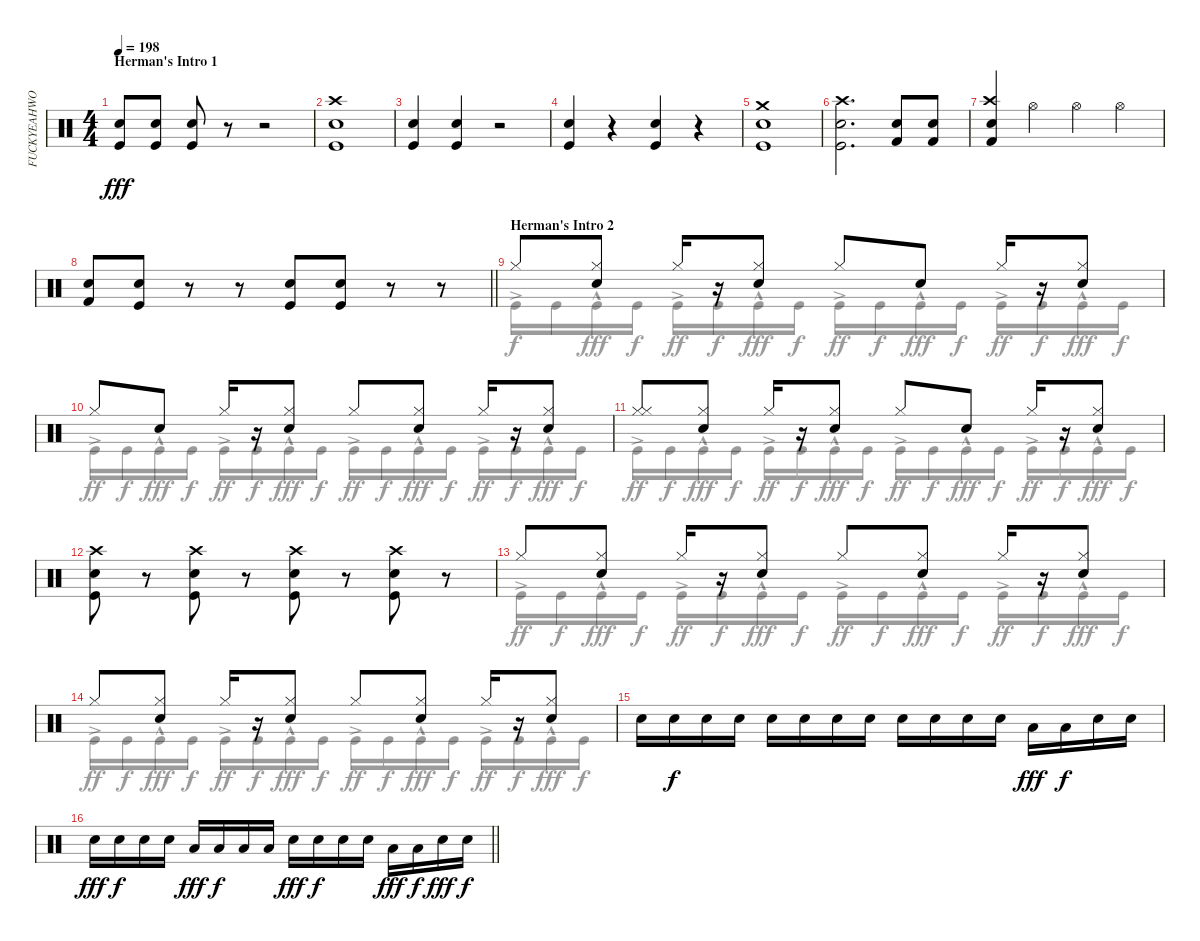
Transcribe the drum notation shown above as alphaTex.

\track ("FUCKYEAHWOOTDAVEMACKINTOSH!(Percussion)" "FUCKYEAHWO") {instrument percussion}
\staff {score}
\articulation defaults
\voice
\ts (4 4)
\section ("" "Herman's Intro 1")
\tempo 198
\clef neutral
\ks c
("Kick (hit)" "Snare (hit) 2").8{dy fff} ("Snare (hit) 2" "Kick (hit)").8 ("Kick (hit)" "Snare (hit) 2").8 r.8 r.2 |
("Crash high (hit)" "Snare (hit) 2" "Kick (hit)").1 |
("Snare (hit) 2" "Kick (hit)").4 ("Kick (hit)" "Snare (hit) 2").4 r.2 |
("Kick (hit)" "Snare (hit) 2").4 r.4 ("Snare (hit) 2" "Kick (hit)").4 r.4 |
("Kick (hit)" "Snare (hit) 2" "Crash medium (hit)").1 |
("Crash high (hit)" "Kick (hit)" "Snare (hit) 2").2{d} ("Kick (hit) 2" "Snare (hit) 2").8 ("Snare (hit) 2" "Kick (hit) 2").8 |
("Crash high (hit)" "Snare (hit) 2" "Kick (hit) 2").4 "Hi-Hat (open)".4 "Hi-Hat (open)".4 "Hi-Hat (open)".4 |
\barLineRight lightlight
("Kick (hit) 2" "Snare (hit) 2").8 ("Kick (hit)" "Snare (hit) 2").8 r.8 r.8 ("Kick (hit)" "Snare (hit) 2").8 ("Kick (hit)" "Snare (hit) 2").8 r.8 r.8 |
\section ("" "Herman's Intro 2")
"Hi-Hat (closed)".8 ("Snare (hit) 2" "Hi-Hat (closed)").8 "Hi-Hat (closed)".16 r.16 ("Hi-Hat (closed)" "Snare (hit) 2").8 "Hi-Hat (closed)".8 "Snare (hit) 2".8 "Hi-Hat (closed)".16 r.16 ("Snare (hit) 2" "Hi-Hat (closed)").8 |
"Hi-Hat (closed)".8 "Snare (hit) 2".8 "Hi-Hat (closed)".16 r.16 ("Hi-Hat (closed)" "Snare (hit) 2").8 "Hi-Hat (closed)".8 ("Snare (hit) 2" "Hi-Hat (closed)").8 "Hi-Hat (closed)".16 r.16 ("Snare (hit) 2" "Hi-Hat (closed)").8 |
("Hi-Hat (closed)" "Hi-Hat (closed)").8 ("Snare (hit) 2" "Hi-Hat (closed)").8 "Hi-Hat (closed)".16 r.16 ("Hi-Hat (closed)" "Snare (hit) 2").8 "Hi-Hat (closed)".8 "Snare (hit) 2".8 "Hi-Hat (closed)".16 r.16 ("Snare (hit) 2" "Hi-Hat (closed)").8 |
("Snare (hit) 2" "Kick (hit)" "Crash high (hit)").8 r.8 ("Crash high (hit)" "Kick (hit)" "Snare (hit) 2").8 r.8 ("Snare (hit) 2" "Kick (hit)" "Crash high (hit)").8 r.8 ("Kick (hit)" "Crash high (hit)" "Snare (hit) 2").8 r.8 |
"Hi-Hat (closed)".8 ("Snare (hit) 2" "Hi-Hat (closed)").8 "Hi-Hat (closed)".16 r.16 ("Hi-Hat (closed)" "Snare (hit) 2").8 "Hi-Hat (closed)".8 ("Snare (hit) 2" "Hi-Hat (closed)").8 "Hi-Hat (closed)".16 r.16 ("Snare (hit) 2" "Hi-Hat (closed)").8 |
"Hi-Hat (closed)".8 ("Snare (hit) 2" "Hi-Hat (closed)").8 "Hi-Hat (closed)".16 r.16 ("Hi-Hat (closed)" "Snare (hit) 2").8 "Hi-Hat (closed)".8 ("Snare (hit) 2" "Hi-Hat (closed)").8 "Hi-Hat (closed)".16 r.16 ("Snare (hit) 2" "Hi-Hat (closed)").8 |
"Snare (hit) 2".16 "Snare (hit) 2".16{dy f} "Snare (hit) 2".16 "Snare (hit) 2".16 "Snare (hit) 2".16 "Snare (hit) 2".16 "Snare (hit) 2".16 "Snare (hit) 2".16 "Snare (hit) 2".16 "Snare (hit) 2".16 "Snare (hit) 2".16 "Snare (hit) 2".16 "Low Tom (hit)".16{dy fff} "Low Tom (hit)".16{dy f} "Snare (hit) 2".16 "Snare (hit) 2".16 |
\barLineRight lightlight "Snare (hit) 2".16{dy fff} "Snare (hit) 2".16{dy f} "Snare (hit) 2".16 "Snare (hit) 2".16 "Low Tom (hit)".16{dy fff} "Low Tom (hit)".16{dy f} "Low Tom (hit)".16 "Low Tom (hit)".16 "Snare (hit) 2".16{dy fff} "Snare (hit) 2".16{dy f} "Snare (hit) 2".16 "Snare (hit) 2".16 "Low Tom (hit)".16{dy fff} "Low Tom (hit)".16{dy f} "Snare (hit) 2".16{dy fff} "Snare (hit) 2".16{dy f}
\voice
\clef neutral
\ottava regular
\simile none
\ks c
|
|
|
|
|
|
|
\barLineRight lightlight
|
"Kick (hit)"{ac}.16 "Kick (hit)".16{dy f} "Kick (hit)"{hac}.16{dy fff} "Kick (hit)".16{dy f} "Kick (hit)"{ac}.16{dy ff} "Kick (hit)".16{dy f} "Kick (hit)"{hac}.16{dy fff} "Kick (hit)".16{dy f} "Kick (hit)"{ac}.16{dy ff} "Kick (hit)".16{dy f} "Kick (hit)"{hac}.16{dy fff} "Kick (hit)".16{dy f} "Kick (hit)"{ac}.16{dy ff} "Kick (hit)".16{dy f} "Kick (hit)"{hac}.16{dy fff} "Kick (hit)".16{dy f} |
"Kick (hit)"{ac}.16{dy ff} "Kick (hit)".16{dy f} "Kick (hit)"{hac}.16{dy fff} "Kick (hit)".16{dy f} "Kick (hit)"{ac}.16{dy ff} "Kick (hit)".16{dy f} "Kick (hit)"{hac}.16{dy fff} "Kick (hit)".16{dy f} "Kick (hit)"{ac}.16{dy ff} "Kick (hit)".16{dy f} "Kick (hit)"{hac}.16{dy fff} "Kick (hit)".16{dy f} "Kick (hit)"{ac}.16{dy ff} "Kick (hit)".16{dy f} "Kick (hit)"{hac}.16{dy fff} "Kick (hit)".16{dy f} |
"Kick (hit)"{ac}.16{dy ff} "Kick (hit)".16{dy f} "Kick (hit)"{hac}.16{dy fff} "Kick (hit)".16{dy f} "Kick (hit)"{ac}.16{dy ff} "Kick (hit)".16{dy f} "Kick (hit)"{hac}.16{dy fff} "Kick (hit)".16{dy f} "Kick (hit)"{ac}.16{dy ff} "Kick (hit)".16{dy f} "Kick (hit)"{hac}.16{dy fff} "Kick (hit)".16{dy f} "Kick (hit)"{ac}.16{dy ff} "Kick (hit)".16{dy f} "Kick (hit)"{hac}.16{dy fff} "Kick (hit)".16{dy f} |
|
"Kick (hit)"{ac}.16{dy ff} "Kick (hit)".16{dy f} "Kick (hit)"{hac}.16{dy fff} "Kick (hit)".16{dy f} "Kick (hit)"{ac}.16{dy ff} "Kick (hit)".16{dy f} "Kick (hit)"{hac}.16{dy fff} "Kick (hit)".16{dy f} "Kick (hit)"{ac}.16{dy ff} "Kick (hit)".16{dy f} "Kick (hit)"{hac}.16{dy fff} "Kick (hit)".16{dy f} "Kick (hit)"{ac}.16{dy ff} "Kick (hit)".16{dy f} "Kick (hit)"{hac}.16{dy fff} "Kick (hit)".16{dy f} |
"Kick (hit)"{ac}.16{dy ff} "Kick (hit)".16{dy f} "Kick (hit)"{hac}.16{dy fff} "Kick (hit)".16{dy f} "Kick (hit)"{ac}.16{dy ff} "Kick (hit)".16{dy f} "Kick (hit)"{hac}.16{dy fff} "Kick (hit)".16{dy f} "Kick (hit)"{ac}.16{dy ff} "Kick (hit)".16{dy f} "Kick (hit)"{hac}.16{dy fff} "Kick (hit)".16{dy f} "Kick (hit)"{ac}.16{dy ff} "Kick (hit)".16{dy f} "Kick (hit)"{hac}.16{dy fff} "Kick (hit)".16{dy f} |
|
\barLineRight lightlight
